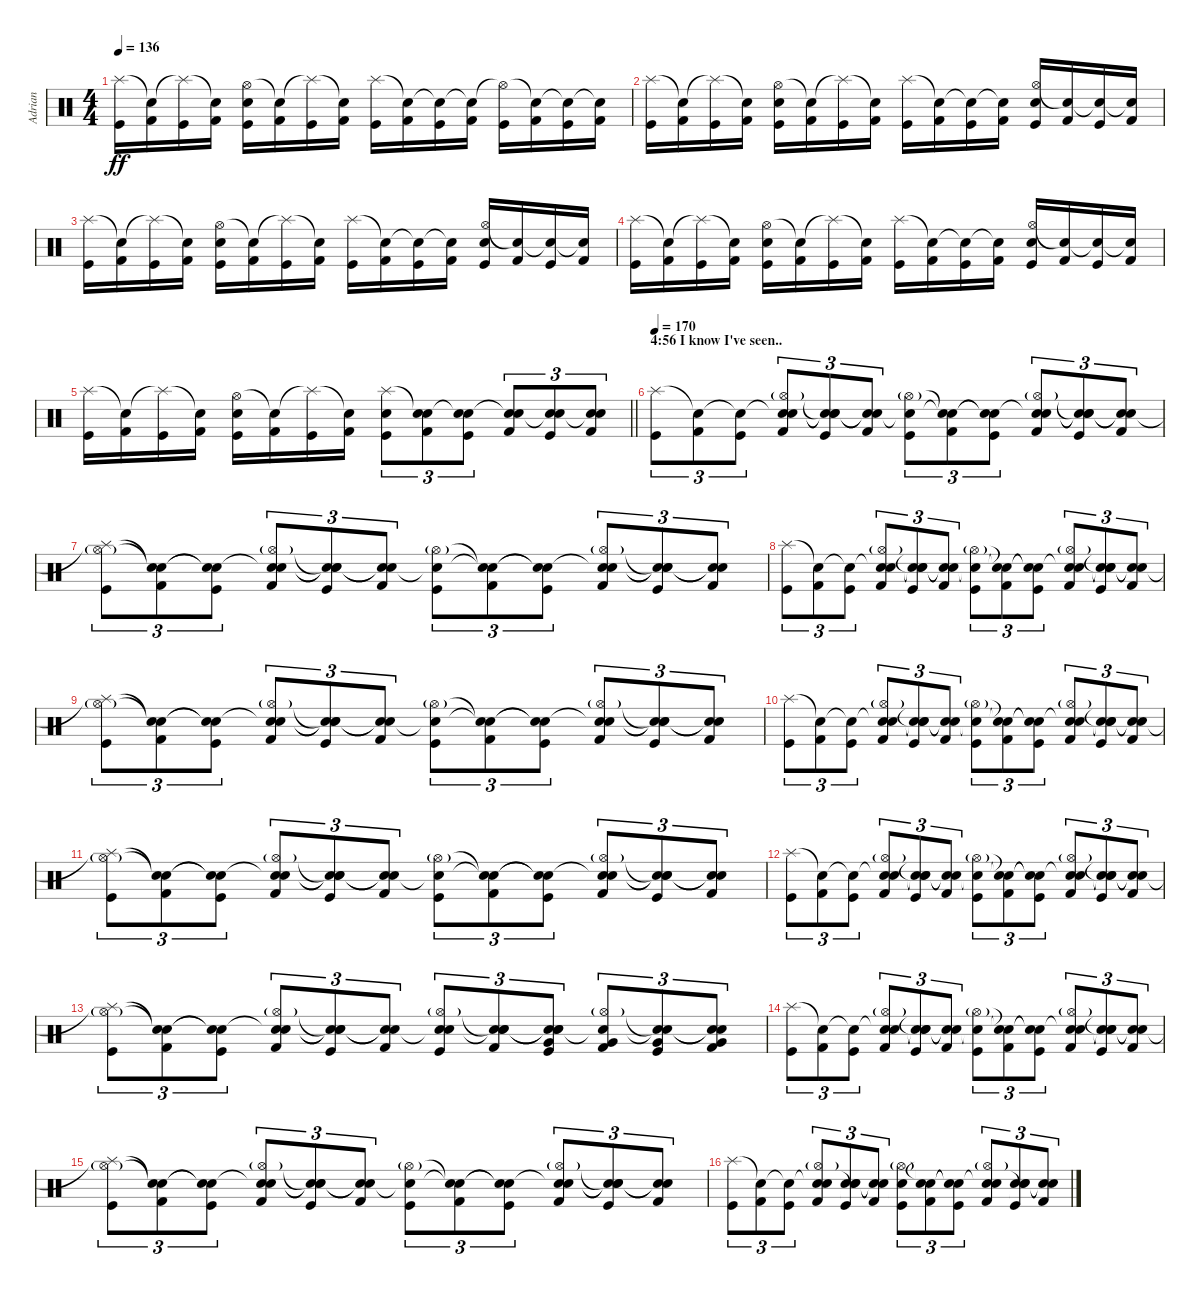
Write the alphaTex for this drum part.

\track ("Adrian" "Adrian") {instrument percussion}
\staff {score}
\articulation defaults
\ts (4 4)
\tempo 136
\clef neutral
\ks c
("Splash (hit)" "Kick (hit)").16{dy ff} ("Snare (hit)"{t} "Kick (hit) 2").16 ("Splash (hit)"{t} "Kick (hit)").16 ("Snare (hit)"{t} "Kick (hit) 2").16 ("Hi-Hat (open)" "Electric Snare (hit)" "Kick (hit)").16 ("Snare (hit)"{t} "Kick (hit) 2").16 ("Splash (hit)"{t} "Kick (hit)").16 ("Snare (hit)"{t} "Kick (hit) 2").16 ("Splash (hit)" "Kick (hit)").16 ("Snare (hit)"{t} "Kick (hit) 2").16 ("Snare (hit)"{t} "Kick (hit)").16 ("Snare (hit)"{t} "Kick (hit) 2").16 ("Hi-Hat (open)"{t} "Kick (hit)").16 ("Snare (hit)"{t} "Kick (hit) 2").16 ("Snare (hit)"{t} "Kick (hit)").16 ("Snare (hit)"{t} "Kick (hit) 2").16 |
("Splash (hit)" "Kick (hit)").16 ("Snare (hit)"{t} "Kick (hit) 2").16 ("Splash (hit)"{t} "Kick (hit)").16 ("Snare (hit)"{t} "Kick (hit) 2").16 ("Hi-Hat (open)" "Electric Snare (hit)" "Kick (hit)").16 ("Snare (hit)"{t} "Kick (hit) 2").16 ("Splash (hit)"{t} "Kick (hit)").16 ("Snare (hit)"{t} "Kick (hit) 2").16 ("Splash (hit)" "Kick (hit)").16 ("Snare (hit)"{t} "Kick (hit) 2").16 ("Snare (hit)"{t} "Kick (hit)").16 ("Snare (hit)"{t} "Kick (hit) 2").16 ("Hi-Hat (open)" "Electric Snare (hit)" "Kick (hit)").16 ("Snare (hit)"{t} "Kick (hit) 2").16 ("Snare (hit)"{t} "Kick (hit)").16 ("Snare (hit)"{t} "Kick (hit) 2").16 |
("Splash (hit)" "Kick (hit)").16 ("Snare (hit)"{t} "Kick (hit) 2").16 ("Splash (hit)"{t} "Kick (hit)").16 ("Snare (hit)"{t} "Kick (hit) 2").16 ("Hi-Hat (open)" "Electric Snare (hit)" "Kick (hit)").16 ("Snare (hit)"{t} "Kick (hit) 2").16 ("Splash (hit)"{t} "Kick (hit)").16 ("Snare (hit)"{t} "Kick (hit) 2").16 ("Splash (hit)" "Kick (hit)").16 ("Snare (hit)"{t} "Kick (hit) 2").16 ("Snare (hit)"{t} "Kick (hit)").16 ("Snare (hit)"{t} "Kick (hit) 2").16 ("Hi-Hat (open)" "Electric Snare (hit)" "Kick (hit)").16 ("Snare (hit)"{t} "Kick (hit) 2").16 ("Snare (hit)"{t} "Kick (hit)").16 ("Snare (hit)"{t} "Kick (hit) 2").16 |
("Splash (hit)" "Kick (hit)").16 ("Snare (hit)"{t} "Kick (hit) 2").16 ("Splash (hit)"{t} "Kick (hit)").16 ("Snare (hit)"{t} "Kick (hit) 2").16 ("Hi-Hat (open)" "Electric Snare (hit)" "Kick (hit)").16 ("Snare (hit)"{t} "Kick (hit) 2").16 ("Splash (hit)"{t} "Kick (hit)").16 ("Snare (hit)"{t} "Kick (hit) 2").16 ("Splash (hit)" "Kick (hit)").16 ("Snare (hit)"{t} "Kick (hit) 2").16 ("Snare (hit)"{t} "Kick (hit)").16 ("Snare (hit)"{t} "Kick (hit) 2").16 ("Hi-Hat (open)" "Electric Snare (hit)" "Kick (hit)").16 ("Snare (hit)"{t} "Kick (hit) 2").16 ("Snare (hit)"{t} "Kick (hit)").16 ("Snare (hit)"{t} "Kick (hit) 2").16 |
\barLineRight lightlight
("Splash (hit)" "Kick (hit)").16 ("Snare (hit)"{t} "Kick (hit) 2").16 ("Splash (hit)"{t} "Kick (hit)").16 ("Snare (hit)"{t} "Kick (hit) 2").16 ("Hi-Hat (open)" "Electric Snare (hit)" "Kick (hit)").16 ("Snare (hit)"{t} "Kick (hit) 2").16 ("Splash (hit)"{t} "Kick (hit)").16 ("Snare (hit)"{t} "Kick (hit) 2").16 ("Splash (hit)" "Electric Snare (hit)" "Kick (hit)").8{tu (3 2)} ("Snare (hit)"{t} "Electric Snare (hit)" "Kick (hit) 2").8{tu (3 2)} ("Snare (hit)"{t} "Electric Snare (hit)" "Kick (hit)").8{tu (3 2)} ("Snare (hit)"{t} "Electric Snare (hit)" "Kick (hit) 2").8{tu (3 2)} ("Snare (hit)"{t} "Electric Snare (hit)" "Kick (hit)").8{tu (3 2)} ("Snare (hit)"{t} "Electric Snare (hit)" "Kick (hit) 2").8{tu (3 2)} |
\section ("" "4:56 I know I've seen..")
\tempo 170
("Splash (hit)" "Kick (hit)").8{tu (3 2)} ("Snare (hit)"{t} "Kick (hit) 2").8{tu (3 2)} ("Snare (hit)"{t} "Kick (hit)").8{tu (3 2)} ("Snare (hit)"{t} "Hi-Hat (open)"{g} "Electric Snare (hit)" "Kick (hit) 2").8{tu (3 2)} ("Snare (hit)"{t} "Snare (hit)"{t} "Snare (hit)"{t} "Kick (hit)").8{tu (3 2)} ("Snare (hit)"{t} "Snare (hit)"{t} "Kick (hit) 2").8{tu (3 2)} ("Snare (hit)"{t} "Hi-Hat (open)"{g} "Kick (hit)").8{tu (3 2)} ("Snare (hit)"{t} "Snare (hit)"{t} "Kick (hit) 2").8{tu (3 2)} ("Snare (hit)"{t} "Snare (hit)"{t} "Kick (hit)").8{tu (3 2)} ("Snare (hit)"{t} "Hi-Hat (open)"{g} "Electric Snare (hit)" "Kick (hit) 2").8{tu (3 2)} ("Snare (hit)"{t} "Snare (hit)"{t} "Snare (hit)"{t} "Kick (hit)").8{tu (3 2)} ("Snare (hit)"{t} "Snare (hit)"{t} "Kick (hit) 2").8{tu (3 2)} |
("Splash (hit)"{t} "Hi-Hat (open)"{g} "Kick (hit)").8{tu (3 2)} ("Snare (hit)"{t} "Snare (hit)"{t} "Kick (hit) 2").8{tu (3 2)} ("Snare (hit)"{t} "Snare (hit)"{t} "Kick (hit)").8{tu (3 2)} ("Snare (hit)"{t} "Hi-Hat (open)"{g} "Electric Snare (hit)" "Kick (hit) 2").8{tu (3 2)} ("Snare (hit)"{t} "Snare (hit)"{t} "Snare (hit)"{t} "Kick (hit)").8{tu (3 2)} ("Snare (hit)"{t} "Snare (hit)"{t} "Kick (hit) 2").8{tu (3 2)} ("Snare (hit)"{t} "Hi-Hat (open)"{g} "Kick (hit)").8{tu (3 2)} ("Snare (hit)"{t} "Snare (hit)"{t} "Kick (hit) 2").8{tu (3 2)} ("Snare (hit)"{t} "Snare (hit)"{t} "Kick (hit)").8{tu (3 2)} ("Snare (hit)"{t} "Hi-Hat (open)"{g} "Electric Snare (hit)" "Kick (hit) 2").8{tu (3 2)} ("Snare (hit)"{t} "Snare (hit)"{t} "Snare (hit)"{t} "Kick (hit)").8{tu (3 2)} ("Snare (hit)"{t} "Snare (hit)"{t} "Kick (hit) 2").8{tu (3 2)} |
("Splash (hit)" "Kick (hit)").8{tu (3 2)} ("Snare (hit)"{t} "Kick (hit) 2").8{tu (3 2)} ("Snare (hit)"{t} "Kick (hit)").8{tu (3 2)} ("Snare (hit)"{t} "Hi-Hat (open)"{g} "Electric Snare (hit)" "Kick (hit) 2").8{tu (3 2)} ("Snare (hit)"{t} "Snare (hit)"{t} "Snare (hit)"{t} "Kick (hit)").8{tu (3 2)} ("Snare (hit)"{t} "Snare (hit)"{t} "Kick (hit) 2").8{tu (3 2)} ("Snare (hit)"{t} "Hi-Hat (open)"{g} "Kick (hit)").8{tu (3 2)} ("Snare (hit)"{t} "Snare (hit)"{t} "Kick (hit) 2").8{tu (3 2)} ("Snare (hit)"{t} "Snare (hit)"{t} "Kick (hit)").8{tu (3 2)} ("Snare (hit)"{t} "Hi-Hat (open)"{g} "Electric Snare (hit)" "Kick (hit) 2").8{tu (3 2)} ("Snare (hit)"{t} "Snare (hit)"{t} "Snare (hit)"{t} "Kick (hit)").8{tu (3 2)} ("Snare (hit)"{t} "Snare (hit)"{t} "Kick (hit) 2").8{tu (3 2)} |
("Splash (hit)"{t} "Hi-Hat (open)"{g} "Kick (hit)").8{tu (3 2)} ("Snare (hit)"{t} "Snare (hit)"{t} "Kick (hit) 2").8{tu (3 2)} ("Snare (hit)"{t} "Snare (hit)"{t} "Kick (hit)").8{tu (3 2)} ("Snare (hit)"{t} "Hi-Hat (open)"{g} "Electric Snare (hit)" "Kick (hit) 2").8{tu (3 2)} ("Snare (hit)"{t} "Snare (hit)"{t} "Snare (hit)"{t} "Kick (hit)").8{tu (3 2)} ("Snare (hit)"{t} "Snare (hit)"{t} "Kick (hit) 2").8{tu (3 2)} ("Snare (hit)"{t} "Hi-Hat (open)"{g} "Kick (hit)").8{tu (3 2)} ("Snare (hit)"{t} "Snare (hit)"{t} "Kick (hit) 2").8{tu (3 2)} ("Snare (hit)"{t} "Snare (hit)"{t} "Kick (hit)").8{tu (3 2)} ("Snare (hit)"{t} "Hi-Hat (open)"{g} "Electric Snare (hit)" "Kick (hit) 2").8{tu (3 2)} ("Snare (hit)"{t} "Snare (hit)"{t} "Snare (hit)"{t} "Kick (hit)").8{tu (3 2)} ("Snare (hit)"{t} "Snare (hit)"{t} "Kick (hit) 2").8{tu (3 2)} |
("Splash (hit)" "Kick (hit)").8{tu (3 2)} ("Snare (hit)"{t} "Kick (hit) 2").8{tu (3 2)} ("Snare (hit)"{t} "Kick (hit)").8{tu (3 2)} ("Snare (hit)"{t} "Hi-Hat (open)"{g} "Electric Snare (hit)" "Kick (hit) 2").8{tu (3 2)} ("Snare (hit)"{t} "Snare (hit)"{t} "Snare (hit)"{t} "Kick (hit)").8{tu (3 2)} ("Snare (hit)"{t} "Snare (hit)"{t} "Kick (hit) 2").8{tu (3 2)} ("Snare (hit)"{t} "Hi-Hat (open)"{g} "Kick (hit)").8{tu (3 2)} ("Snare (hit)"{t} "Snare (hit)"{t} "Kick (hit) 2").8{tu (3 2)} ("Snare (hit)"{t} "Snare (hit)"{t} "Kick (hit)").8{tu (3 2)} ("Snare (hit)"{t} "Hi-Hat (open)"{g} "Electric Snare (hit)" "Kick (hit) 2").8{tu (3 2)} ("Snare (hit)"{t} "Snare (hit)"{t} "Snare (hit)"{t} "Kick (hit)").8{tu (3 2)} ("Snare (hit)"{t} "Snare (hit)"{t} "Kick (hit) 2").8{tu (3 2)} |
("Splash (hit)"{t} "Hi-Hat (open)"{g} "Kick (hit)").8{tu (3 2)} ("Snare (hit)"{t} "Snare (hit)"{t} "Kick (hit) 2").8{tu (3 2)} ("Snare (hit)"{t} "Snare (hit)"{t} "Kick (hit)").8{tu (3 2)} ("Snare (hit)"{t} "Hi-Hat (open)"{g} "Electric Snare (hit)" "Kick (hit) 2").8{tu (3 2)} ("Snare (hit)"{t} "Snare (hit)"{t} "Snare (hit)"{t} "Kick (hit)").8{tu (3 2)} ("Snare (hit)"{t} "Snare (hit)"{t} "Kick (hit) 2").8{tu (3 2)} ("Snare (hit)"{t} "Hi-Hat (open)"{g} "Kick (hit)").8{tu (3 2)} ("Snare (hit)"{t} "Snare (hit)"{t} "Kick (hit) 2").8{tu (3 2)} ("Snare (hit)"{t} "Snare (hit)"{t} "Kick (hit)").8{tu (3 2)} ("Snare (hit)"{t} "Hi-Hat (open)"{g} "Electric Snare (hit)" "Kick (hit) 2").8{tu (3 2)} ("Snare (hit)"{t} "Snare (hit)"{t} "Snare (hit)"{t} "Kick (hit)").8{tu (3 2)} ("Snare (hit)"{t} "Snare (hit)"{t} "Kick (hit) 2").8{tu (3 2)} |
("Splash (hit)" "Kick (hit)").8{tu (3 2)} ("Snare (hit)"{t} "Kick (hit) 2").8{tu (3 2)} ("Snare (hit)"{t} "Kick (hit)").8{tu (3 2)} ("Snare (hit)"{t} "Hi-Hat (open)"{g} "Electric Snare (hit)" "Kick (hit) 2").8{tu (3 2)} ("Snare (hit)"{t} "Snare (hit)"{t} "Snare (hit)"{t} "Kick (hit)").8{tu (3 2)} ("Snare (hit)"{t} "Snare (hit)"{t} "Kick (hit) 2").8{tu (3 2)} ("Snare (hit)"{t} "Hi-Hat (open)"{g} "Kick (hit)").8{tu (3 2)} ("Snare (hit)"{t} "Snare (hit)"{t} "Kick (hit) 2").8{tu (3 2)} ("Snare (hit)"{t} "Snare (hit)"{t} "Kick (hit)").8{tu (3 2)} ("Snare (hit)"{t} "Hi-Hat (open)"{g} "Electric Snare (hit)" "Kick (hit) 2").8{tu (3 2)} ("Snare (hit)"{t} "Snare (hit)"{t} "Snare (hit)"{t} "Kick (hit)").8{tu (3 2)} ("Snare (hit)"{t} "Snare (hit)"{t} "Kick (hit) 2").8{tu (3 2)} |
("Splash (hit)"{t} "Hi-Hat (open)"{g} "Kick (hit)").8{tu (3 2)} ("Snare (hit)"{t} "Snare (hit)"{t} "Kick (hit) 2").8{tu (3 2)} ("Snare (hit)"{t} "Snare (hit)"{t} "Kick (hit)").8{tu (3 2)} ("Snare (hit)"{t} "Hi-Hat (open)"{g} "Electric Snare (hit)" "Kick (hit) 2").8{tu (3 2)} ("Snare (hit)"{t} "Snare (hit)"{t} "Snare (hit)"{t} "Kick (hit)").8{tu (3 2)} ("Snare (hit)"{t} "Snare (hit)"{t} "Kick (hit) 2").8{tu (3 2)} ("Snare (hit)"{t} "Hi-Hat (open)"{g} "Electric Snare (hit)" "Kick (hit)").8{tu (3 2)} ("Snare (hit)"{t} "Snare (hit)"{t} "Electric Snare (hit)" "Kick (hit) 2").8{tu (3 2)} ("Snare (hit)"{t} "Snare (hit)"{t} "Electric Snare (hit)" "Very Low Tom (hit)" "Kick (hit)").8{tu (3 2)} ("Snare (hit)"{t} "Hi-Hat (open)"{g} "Very Low Tom (hit)" "Kick (hit) 2").8{tu (3 2)} ("Snare (hit)"{t} "Snare (hit)"{t} "Very Low Tom (hit)" "Kick (hit)").8{tu (3 2)} ("Snare (hit)"{t} "Snare (hit)"{t} "Very Low Tom (hit)" "Kick (hit) 2").8{tu (3 2)} |
("Splash (hit)" "Kick (hit)").8{tu (3 2)} ("Snare (hit)"{t} "Kick (hit) 2").8{tu (3 2)} ("Snare (hit)"{t} "Kick (hit)").8{tu (3 2)} ("Snare (hit)"{t} "Hi-Hat (open)"{g} "Electric Snare (hit)" "Kick (hit) 2").8{tu (3 2)} ("Snare (hit)"{t} "Snare (hit)"{t} "Snare (hit)"{t} "Kick (hit)").8{tu (3 2)} ("Snare (hit)"{t} "Snare (hit)"{t} "Kick (hit) 2").8{tu (3 2)} ("Snare (hit)"{t} "Hi-Hat (open)"{g} "Kick (hit)").8{tu (3 2)} ("Snare (hit)"{t} "Snare (hit)"{t} "Kick (hit) 2").8{tu (3 2)} ("Snare (hit)"{t} "Snare (hit)"{t} "Kick (hit)").8{tu (3 2)} ("Snare (hit)"{t} "Hi-Hat (open)"{g} "Electric Snare (hit)" "Kick (hit) 2").8{tu (3 2)} ("Snare (hit)"{t} "Snare (hit)"{t} "Snare (hit)"{t} "Kick (hit)").8{tu (3 2)} ("Snare (hit)"{t} "Snare (hit)"{t} "Kick (hit) 2").8{tu (3 2)} |
("Splash (hit)"{t} "Hi-Hat (open)"{g} "Kick (hit)").8{tu (3 2)} ("Snare (hit)"{t} "Snare (hit)"{t} "Kick (hit) 2").8{tu (3 2)} ("Snare (hit)"{t} "Snare (hit)"{t} "Kick (hit)").8{tu (3 2)} ("Snare (hit)"{t} "Hi-Hat (open)"{g} "Electric Snare (hit)" "Kick (hit) 2").8{tu (3 2)} ("Snare (hit)"{t} "Snare (hit)"{t} "Snare (hit)"{t} "Kick (hit)").8{tu (3 2)} ("Snare (hit)"{t} "Snare (hit)"{t} "Kick (hit) 2").8{tu (3 2)} ("Snare (hit)"{t} "Hi-Hat (open)"{g} "Kick (hit)").8{tu (3 2)} ("Snare (hit)"{t} "Snare (hit)"{t} "Kick (hit) 2").8{tu (3 2)} ("Snare (hit)"{t} "Snare (hit)"{t} "Kick (hit)").8{tu (3 2)} ("Snare (hit)"{t} "Hi-Hat (open)"{g} "Electric Snare (hit)" "Kick (hit) 2").8{tu (3 2)} ("Snare (hit)"{t} "Snare (hit)"{t} "Snare (hit)"{t} "Kick (hit)").8{tu (3 2)} ("Snare (hit)"{t} "Snare (hit)"{t} "Kick (hit) 2").8{tu (3 2)} |
("Splash (hit)" "Kick (hit)").8{tu (3 2)} ("Snare (hit)"{t} "Kick (hit) 2").8{tu (3 2)} ("Snare (hit)"{t} "Kick (hit)").8{tu (3 2)} ("Snare (hit)"{t} "Hi-Hat (open)"{g} "Electric Snare (hit)" "Kick (hit) 2").8{tu (3 2)} ("Snare (hit)"{t} "Snare (hit)"{t} "Snare (hit)"{t} "Kick (hit)").8{tu (3 2)} ("Snare (hit)"{t} "Snare (hit)"{t} "Kick (hit) 2").8{tu (3 2)} ("Snare (hit)"{t} "Hi-Hat (open)"{g} "Kick (hit)").8{tu (3 2)} ("Snare (hit)"{t} "Snare (hit)"{t} "Kick (hit) 2").8{tu (3 2)} ("Snare (hit)"{t} "Snare (hit)"{t} "Kick (hit)").8{tu (3 2)} ("Snare (hit)"{t} "Hi-Hat (open)"{g} "Electric Snare (hit)" "Kick (hit) 2").8{tu (3 2)} ("Snare (hit)"{t} "Snare (hit)"{t} "Snare (hit)"{t} "Kick (hit)").8{tu (3 2)} ("Snare (hit)"{t} "Snare (hit)"{t} "Kick (hit) 2").8{tu (3 2)}
